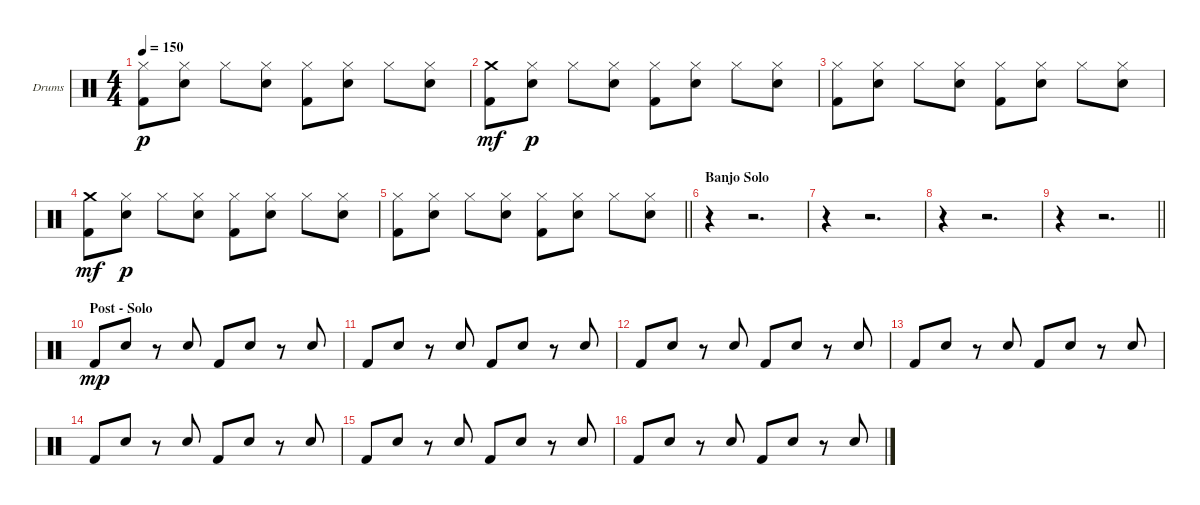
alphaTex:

\bracketExtendMode groupsimilarinstruments
\firstSystemTrackNameOrientation horizontal
\otherSystemsTrackNameOrientation horizontal
\track ("Drumkit" "Drums") {instrument percussion}
\staff {score}
\articulation defaults
\ts (4 4)
\tempo 150
\clef neutral
\ks c
("Hi-Hat (closed)" "Kick (hit) 2").8{dy p beam Down} ("Hi-Hat (closed)" "Snare (hit) 2").8{beam Down} "Hi-Hat (closed)".8{beam Down} ("Hi-Hat (closed)" "Snare (hit) 2").8{beam Down} ("Hi-Hat (closed)" "Kick (hit) 2").8{beam Down} ("Hi-Hat (closed)" "Snare (hit) 2").8{beam Down} "Hi-Hat (closed)".8{beam Down} ("Hi-Hat (closed)" "Snare (hit) 2").8{beam Down} |
("Crash medium (hit)" "Kick (hit) 2").8{dy mf beam Down} ("Hi-Hat (closed)" "Snare (hit) 2").8{dy p beam Down} "Hi-Hat (closed)".8{beam Down} ("Hi-Hat (closed)" "Snare (hit) 2").8{beam Down} ("Hi-Hat (closed)" "Kick (hit) 2").8{beam Down} ("Hi-Hat (closed)" "Snare (hit) 2").8{beam Down} "Hi-Hat (closed)".8{beam Down} ("Hi-Hat (closed)" "Snare (hit) 2").8{beam Down} |
("Hi-Hat (closed)" "Kick (hit) 2").8{beam Down} ("Hi-Hat (closed)" "Snare (hit) 2").8{beam Down} "Hi-Hat (closed)".8{beam Down} ("Hi-Hat (closed)" "Snare (hit) 2").8{beam Down} ("Hi-Hat (closed)" "Kick (hit) 2").8{beam Down} ("Hi-Hat (closed)" "Snare (hit) 2").8{beam Down} "Hi-Hat (closed)".8{beam Down} ("Hi-Hat (closed)" "Snare (hit) 2").8{beam Down} |
("Crash medium (hit)" "Kick (hit) 2").8{dy mf beam Down} ("Hi-Hat (closed)" "Snare (hit) 2").8{dy p beam Down} "Hi-Hat (closed)".8{beam Down} ("Hi-Hat (closed)" "Snare (hit) 2").8{beam Down} ("Hi-Hat (closed)" "Kick (hit) 2").8{beam Down} ("Hi-Hat (closed)" "Snare (hit) 2").8{beam Down} "Hi-Hat (closed)".8{beam Down} ("Hi-Hat (closed)" "Snare (hit) 2").8{beam Down} |
\barLineRight lightlight
("Hi-Hat (closed)" "Kick (hit) 2").8{beam Down} ("Hi-Hat (closed)" "Snare (hit) 2").8{beam Down} "Hi-Hat (closed)".8{beam Down} ("Hi-Hat (closed)" "Snare (hit) 2").8{beam Down} ("Hi-Hat (closed)" "Kick (hit) 2").8{beam Down} ("Hi-Hat (closed)" "Snare (hit) 2").8{beam Down} "Hi-Hat (closed)".8{beam Down} ("Hi-Hat (closed)" "Snare (hit) 2").8{beam Down} |
\section ("" "Banjo Solo")
r.4{beam Down} r.2{d beam Down} |
r.4{beam Down} r.2{d beam Down} |
r.4{beam Down} r.2{d beam Down} |
\barLineRight lightlight
r.4{beam Down} r.2{d beam Down} |
\section ("" "Post - Solo")
"Kick (hit) 2".8{dy mp beam Up} "Snare (hit) 2".8{beam Up} r.8{beam Up} "Snare (hit) 2".8{beam Down} "Kick (hit) 2".8{beam Up} "Snare (hit) 2".8{beam Up} r.8{beam Up} "Snare (hit) 2".8{beam Down} |
"Kick (hit) 2".8{beam Up} "Snare (hit) 2".8{beam Up} r.8{beam Up} "Snare (hit) 2".8{beam Down} "Kick (hit) 2".8{beam Up} "Snare (hit) 2".8{beam Up} r.8{beam Up} "Snare (hit) 2".8{beam Down} |
"Kick (hit) 2".8{beam Up} "Snare (hit) 2".8{beam Up} r.8{beam Up} "Snare (hit) 2".8{beam Down} "Kick (hit) 2".8{beam Up} "Snare (hit) 2".8{beam Up} r.8{beam Up} "Snare (hit) 2".8{beam Down} |
"Kick (hit) 2".8{beam Up} "Snare (hit) 2".8{beam Up} r.8{beam Up} "Snare (hit) 2".8{beam Down} "Kick (hit) 2".8{beam Up} "Snare (hit) 2".8{beam Up} r.8{beam Up} "Snare (hit) 2".8{beam Down} |
"Kick (hit) 2".8{beam Up} "Snare (hit) 2".8{beam Up} r.8{beam Up} "Snare (hit) 2".8{beam Down} "Kick (hit) 2".8{beam Up} "Snare (hit) 2".8{beam Up} r.8{beam Up} "Snare (hit) 2".8{beam Down} |
"Kick (hit) 2".8{beam Up} "Snare (hit) 2".8{beam Up} r.8{beam Up} "Snare (hit) 2".8{beam Down} "Kick (hit) 2".8{beam Up} "Snare (hit) 2".8{beam Up} r.8{beam Up} "Snare (hit) 2".8{beam Down} |
"Kick (hit) 2".8{beam Up} "Snare (hit) 2".8{beam Up} r.8{beam Up} "Snare (hit) 2".8{beam Down} "Kick (hit) 2".8{beam Up} "Snare (hit) 2".8{beam Up} r.8{beam Up} "Snare (hit) 2".8{beam Down}
